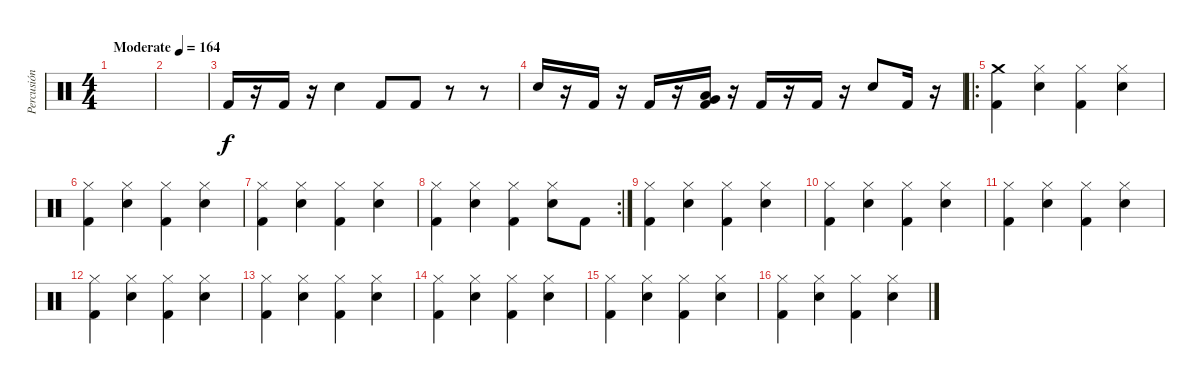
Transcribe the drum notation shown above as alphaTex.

\track ("Percusión" "Percusión") {mute instrument percussion}
\staff {score}
\articulation defaults
\ts (4 4)
\tempo (164 "Moderate")
\clef neutral
\ks c
|
|
"Kick (hit) 2".16 r.16 "Kick (hit) 2".16 r.16 "Electric Snare (hit)".4 "Kick (hit) 2".8 "Kick (hit) 2".8 r.8 r.8 |
"Electric Snare (hit)".16 r.16 "Kick (hit) 2".16 r.16 "Kick (hit) 2".16 r.16 ("Low Floor Tom (hit)" "Very Low Tom (hit)" "Kick (hit) 2").16 r.16 "Kick (hit) 2".16 r.16 "Kick (hit) 2".16 r.16 "Electric Snare (hit)".8 "Kick (hit) 2".16 r.16 |
\ro
("Kick (hit) 2" "Crash medium (hit)").4 ("Electric Snare (hit)" "Hi-Hat (closed)").4 ("Kick (hit) 2" "Hi-Hat (closed)").4 ("Electric Snare (hit)" "Hi-Hat (closed)").4 |
("Kick (hit) 2" "Hi-Hat (closed)").4 ("Electric Snare (hit)" "Hi-Hat (closed)").4 ("Kick (hit) 2" "Hi-Hat (closed)").4 ("Electric Snare (hit)" "Hi-Hat (closed)").4 |
("Kick (hit) 2" "Hi-Hat (closed)").4 ("Electric Snare (hit)" "Hi-Hat (closed)").4 ("Kick (hit) 2" "Hi-Hat (closed)").4 ("Electric Snare (hit)" "Hi-Hat (closed)").4 |
\rc 2
("Kick (hit) 2" "Hi-Hat (closed)").4 ("Electric Snare (hit)" "Hi-Hat (closed)").4 ("Kick (hit) 2" "Hi-Hat (closed)").4 ("Electric Snare (hit)" "Hi-Hat (closed)").8 "Kick (hit) 2".8 |
("Kick (hit) 2" "Hi-Hat (closed)").4 ("Electric Snare (hit)" "Hi-Hat (closed)").4 ("Kick (hit) 2" "Hi-Hat (closed)").4 ("Electric Snare (hit)" "Hi-Hat (closed)").4 |
("Kick (hit) 2" "Hi-Hat (closed)").4 ("Electric Snare (hit)" "Hi-Hat (closed)").4 ("Kick (hit) 2" "Hi-Hat (closed)").4 ("Electric Snare (hit)" "Hi-Hat (closed)").4 |
("Kick (hit) 2" "Hi-Hat (closed)").4 ("Electric Snare (hit)" "Hi-Hat (closed)").4 ("Kick (hit) 2" "Hi-Hat (closed)").4 ("Electric Snare (hit)" "Hi-Hat (closed)").4 |
("Kick (hit) 2" "Hi-Hat (closed)").4 ("Electric Snare (hit)" "Hi-Hat (closed)").4 ("Kick (hit) 2" "Hi-Hat (closed)").4 ("Electric Snare (hit)" "Hi-Hat (closed)").4 |
("Kick (hit) 2" "Hi-Hat (closed)").4 ("Electric Snare (hit)" "Hi-Hat (closed)").4 ("Kick (hit) 2" "Hi-Hat (closed)").4 ("Electric Snare (hit)" "Hi-Hat (closed)").4 |
("Kick (hit) 2" "Hi-Hat (closed)").4 ("Electric Snare (hit)" "Hi-Hat (closed)").4 ("Kick (hit) 2" "Hi-Hat (closed)").4 ("Electric Snare (hit)" "Hi-Hat (closed)").4 |
("Kick (hit) 2" "Hi-Hat (closed)").4 ("Electric Snare (hit)" "Hi-Hat (closed)").4 ("Kick (hit) 2" "Hi-Hat (closed)").4 ("Electric Snare (hit)" "Hi-Hat (closed)").4 |
("Kick (hit) 2" "Hi-Hat (closed)").4 ("Electric Snare (hit)" "Hi-Hat (closed)").4 ("Kick (hit) 2" "Hi-Hat (closed)").4 ("Electric Snare (hit)" "Hi-Hat (closed)").4
